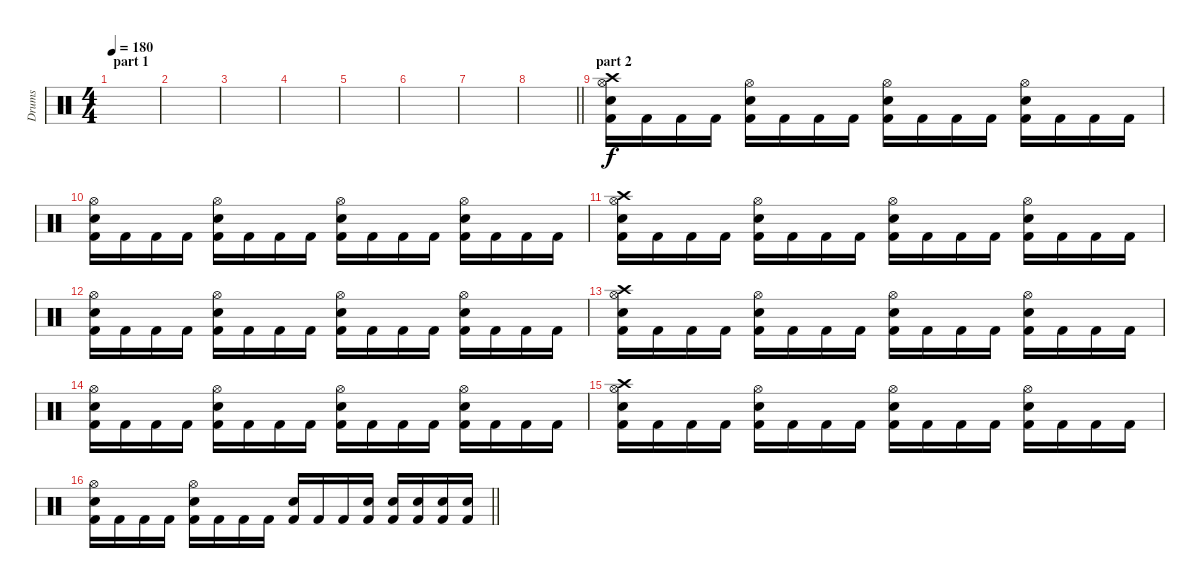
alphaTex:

\track ("Drums" "Drums") {instrument percussion}
\staff {score}
\articulation defaults
\ts (4 4)
\section ("" "part 1")
\tempo 180
\clef neutral
\ks c
|
|
|
|
|
|
|
\barLineRight lightlight
|
\section ("" "part 2")
("Crash high (hit)" "Hi-Hat (open)" "Electric Snare (hit)" "Kick (hit) 2").16 "Kick (hit) 2".16 "Kick (hit) 2".16 "Kick (hit) 2".16 ("Hi-Hat (open)" "Electric Snare (hit)" "Kick (hit) 2").16 "Kick (hit) 2".16 "Kick (hit) 2".16 "Kick (hit) 2".16 ("Hi-Hat (open)" "Electric Snare (hit)" "Kick (hit) 2").16 "Kick (hit) 2".16 "Kick (hit) 2".16 "Kick (hit) 2".16 ("Hi-Hat (open)" "Electric Snare (hit)" "Kick (hit) 2").16 "Kick (hit) 2".16 "Kick (hit) 2".16 "Kick (hit) 2".16 |
("Hi-Hat (open)" "Electric Snare (hit)" "Kick (hit) 2").16 "Kick (hit) 2".16 "Kick (hit) 2".16 "Kick (hit) 2".16 ("Hi-Hat (open)" "Electric Snare (hit)" "Kick (hit) 2").16 "Kick (hit) 2".16 "Kick (hit) 2".16 "Kick (hit) 2".16 ("Hi-Hat (open)" "Electric Snare (hit)" "Kick (hit) 2").16 "Kick (hit) 2".16 "Kick (hit) 2".16 "Kick (hit) 2".16 ("Hi-Hat (open)" "Electric Snare (hit)" "Kick (hit) 2").16 "Kick (hit) 2".16 "Kick (hit) 2".16 "Kick (hit) 2".16 |
("Crash high (hit)" "Hi-Hat (open)" "Electric Snare (hit)" "Kick (hit) 2").16 "Kick (hit) 2".16 "Kick (hit) 2".16 "Kick (hit) 2".16 ("Hi-Hat (open)" "Electric Snare (hit)" "Kick (hit) 2").16 "Kick (hit) 2".16 "Kick (hit) 2".16 "Kick (hit) 2".16 ("Hi-Hat (open)" "Electric Snare (hit)" "Kick (hit) 2").16 "Kick (hit) 2".16 "Kick (hit) 2".16 "Kick (hit) 2".16 ("Hi-Hat (open)" "Electric Snare (hit)" "Kick (hit) 2").16 "Kick (hit) 2".16 "Kick (hit) 2".16 "Kick (hit) 2".16 |
("Hi-Hat (open)" "Electric Snare (hit)" "Kick (hit) 2").16 "Kick (hit) 2".16 "Kick (hit) 2".16 "Kick (hit) 2".16 ("Hi-Hat (open)" "Electric Snare (hit)" "Kick (hit) 2").16 "Kick (hit) 2".16 "Kick (hit) 2".16 "Kick (hit) 2".16 ("Hi-Hat (open)" "Electric Snare (hit)" "Kick (hit) 2").16 "Kick (hit) 2".16 "Kick (hit) 2".16 "Kick (hit) 2".16 ("Hi-Hat (open)" "Electric Snare (hit)" "Kick (hit) 2").16 "Kick (hit) 2".16 "Kick (hit) 2".16 "Kick (hit) 2".16 |
("Crash high (hit)" "Hi-Hat (open)" "Electric Snare (hit)" "Kick (hit) 2").16 "Kick (hit) 2".16 "Kick (hit) 2".16 "Kick (hit) 2".16 ("Hi-Hat (open)" "Electric Snare (hit)" "Kick (hit) 2").16 "Kick (hit) 2".16 "Kick (hit) 2".16 "Kick (hit) 2".16 ("Hi-Hat (open)" "Electric Snare (hit)" "Kick (hit) 2").16 "Kick (hit) 2".16 "Kick (hit) 2".16 "Kick (hit) 2".16 ("Hi-Hat (open)" "Electric Snare (hit)" "Kick (hit) 2").16 "Kick (hit) 2".16 "Kick (hit) 2".16 "Kick (hit) 2".16 |
("Hi-Hat (open)" "Electric Snare (hit)" "Kick (hit) 2").16 "Kick (hit) 2".16 "Kick (hit) 2".16 "Kick (hit) 2".16 ("Hi-Hat (open)" "Electric Snare (hit)" "Kick (hit) 2").16 "Kick (hit) 2".16 "Kick (hit) 2".16 "Kick (hit) 2".16 ("Hi-Hat (open)" "Electric Snare (hit)" "Kick (hit) 2").16 "Kick (hit) 2".16 "Kick (hit) 2".16 "Kick (hit) 2".16 ("Hi-Hat (open)" "Electric Snare (hit)" "Kick (hit) 2").16 "Kick (hit) 2".16 "Kick (hit) 2".16 "Kick (hit) 2".16 |
("Crash high (hit)" "Hi-Hat (open)" "Electric Snare (hit)" "Kick (hit) 2").16 "Kick (hit) 2".16 "Kick (hit) 2".16 "Kick (hit) 2".16 ("Hi-Hat (open)" "Electric Snare (hit)" "Kick (hit) 2").16 "Kick (hit) 2".16 "Kick (hit) 2".16 "Kick (hit) 2".16 ("Hi-Hat (open)" "Electric Snare (hit)" "Kick (hit) 2").16 "Kick (hit) 2".16 "Kick (hit) 2".16 "Kick (hit) 2".16 ("Hi-Hat (open)" "Electric Snare (hit)" "Kick (hit) 2").16 "Kick (hit) 2".16 "Kick (hit) 2".16 "Kick (hit) 2".16 |
\barLineRight lightlight
("Hi-Hat (open)" "Electric Snare (hit)" "Kick (hit) 2").16 "Kick (hit) 2".16 "Kick (hit) 2".16 "Kick (hit) 2".16 ("Hi-Hat (open)" "Electric Snare (hit)" "Kick (hit) 2").16 "Kick (hit) 2".16 "Kick (hit) 2".16 "Kick (hit) 2".16 ("Electric Snare (hit)" "Kick (hit) 2").16 "Kick (hit) 2".16 "Kick (hit) 2".16 ("Electric Snare (hit)" "Kick (hit) 2").16 ("Electric Snare (hit)" "Kick (hit) 2").16 ("Electric Snare (hit)" "Kick (hit) 2").16 ("Electric Snare (hit)" "Kick (hit) 2").16 ("Electric Snare (hit)" "Kick (hit) 2").16
